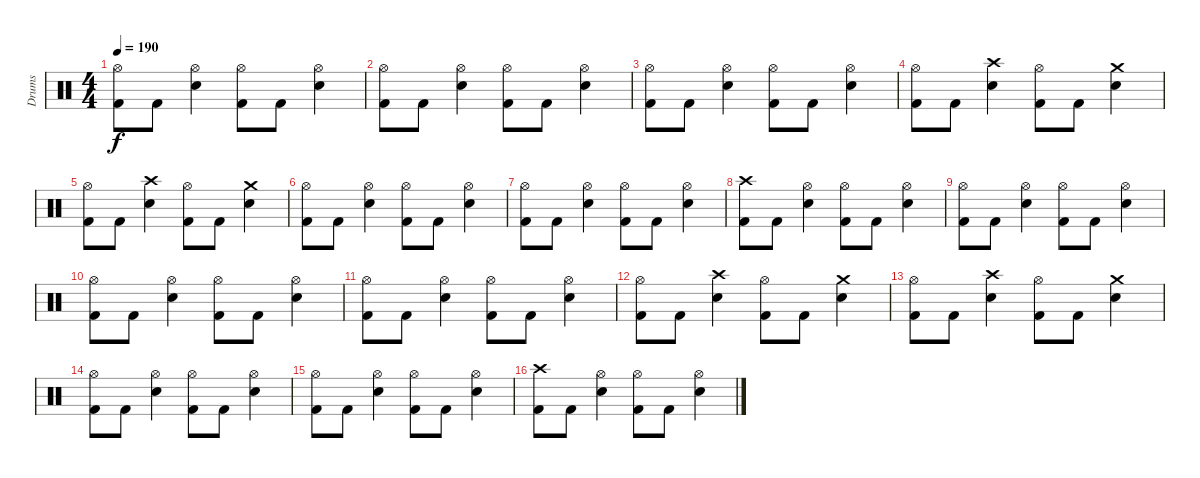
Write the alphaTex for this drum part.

\track ("Drums" "Drums") {instrument percussion}
\staff {score}
\articulation defaults
\ts (4 4)
\tempo 190
\clef neutral
\ks c
("Hi-Hat (open)" "Kick (hit) 2").8{dy f} "Kick (hit) 2".8 ("Hi-Hat (open)" "Snare (hit) 2").4 ("Hi-Hat (open)" "Kick (hit) 2").8 "Kick (hit) 2".8 ("Hi-Hat (open)" "Snare (hit) 2").4 |
("Hi-Hat (open)" "Kick (hit) 2").8 "Kick (hit) 2".8 ("Hi-Hat (open)" "Snare (hit) 2").4 ("Hi-Hat (open)" "Kick (hit) 2").8 "Kick (hit) 2".8 ("Hi-Hat (open)" "Snare (hit) 2").4 |
("Hi-Hat (open)" "Kick (hit) 2").8 "Kick (hit) 2".8 ("Hi-Hat (open)" "Snare (hit) 2").4 ("Hi-Hat (open)" "Kick (hit) 2").8 "Kick (hit) 2".8 ("Hi-Hat (open)" "Snare (hit) 2").4 |
("Hi-Hat (open)" "Kick (hit) 2").8 "Kick (hit) 2".8 ("Crash high (hit)" "Snare (hit) 2").4 ("Hi-Hat (open)" "Kick (hit) 2").8 "Kick (hit) 2".8 ("Crash medium (hit)" "Snare (hit) 2").4 |
("Hi-Hat (open)" "Kick (hit) 2").8 "Kick (hit) 2".8 ("Crash high (hit)" "Snare (hit) 2").4 ("Hi-Hat (open)" "Kick (hit) 2").8 "Kick (hit) 2".8 ("Crash medium (hit)" "Snare (hit) 2").4 |
("Hi-Hat (open)" "Kick (hit) 2").8 "Kick (hit) 2".8 ("Hi-Hat (open)" "Snare (hit) 2").4 ("Hi-Hat (open)" "Kick (hit) 2").8 "Kick (hit) 2".8 ("Hi-Hat (open)" "Snare (hit) 2").4 |
("Hi-Hat (open)" "Kick (hit) 2").8 "Kick (hit) 2".8 ("Hi-Hat (open)" "Snare (hit) 2").4 ("Hi-Hat (open)" "Kick (hit) 2").8 "Kick (hit) 2".8 ("Hi-Hat (open)" "Snare (hit) 2").4 |
("Crash high (hit)" "Kick (hit) 2").8 "Kick (hit) 2".8 ("Hi-Hat (open)" "Snare (hit) 2").4 ("Hi-Hat (open)" "Kick (hit) 2").8 "Kick (hit) 2".8 ("Hi-Hat (open)" "Snare (hit) 2").4 |
("Hi-Hat (open)" "Kick (hit) 2").8 "Kick (hit) 2".8 ("Hi-Hat (open)" "Snare (hit) 2").4 ("Hi-Hat (open)" "Kick (hit) 2").8 "Kick (hit) 2".8 ("Hi-Hat (open)" "Snare (hit) 2").4 |
("Hi-Hat (open)" "Kick (hit) 2").8 "Kick (hit) 2".8 ("Hi-Hat (open)" "Snare (hit) 2").4 ("Hi-Hat (open)" "Kick (hit) 2").8 "Kick (hit) 2".8 ("Hi-Hat (open)" "Snare (hit) 2").4 |
("Hi-Hat (open)" "Kick (hit) 2").8 "Kick (hit) 2".8 ("Hi-Hat (open)" "Snare (hit) 2").4 ("Hi-Hat (open)" "Kick (hit) 2").8 "Kick (hit) 2".8 ("Hi-Hat (open)" "Snare (hit) 2").4 |
("Hi-Hat (open)" "Kick (hit) 2").8 "Kick (hit) 2".8 ("Crash high (hit)" "Snare (hit) 2").4 ("Hi-Hat (open)" "Kick (hit) 2").8 "Kick (hit) 2".8 ("Crash medium (hit)" "Snare (hit) 2").4 |
("Hi-Hat (open)" "Kick (hit) 2").8 "Kick (hit) 2".8 ("Crash high (hit)" "Snare (hit) 2").4 ("Hi-Hat (open)" "Kick (hit) 2").8 "Kick (hit) 2".8 ("Crash medium (hit)" "Snare (hit) 2").4 |
("Hi-Hat (open)" "Kick (hit) 2").8 "Kick (hit) 2".8 ("Hi-Hat (open)" "Snare (hit) 2").4 ("Hi-Hat (open)" "Kick (hit) 2").8 "Kick (hit) 2".8 ("Hi-Hat (open)" "Snare (hit) 2").4 |
("Hi-Hat (open)" "Kick (hit) 2").8 "Kick (hit) 2".8 ("Hi-Hat (open)" "Snare (hit) 2").4 ("Hi-Hat (open)" "Kick (hit) 2").8 "Kick (hit) 2".8 ("Hi-Hat (open)" "Snare (hit) 2").4 |
("Crash high (hit)" "Kick (hit) 2").8 "Kick (hit) 2".8 ("Hi-Hat (open)" "Snare (hit) 2").4 ("Hi-Hat (open)" "Kick (hit) 2").8 "Kick (hit) 2".8 ("Hi-Hat (open)" "Snare (hit) 2").4
